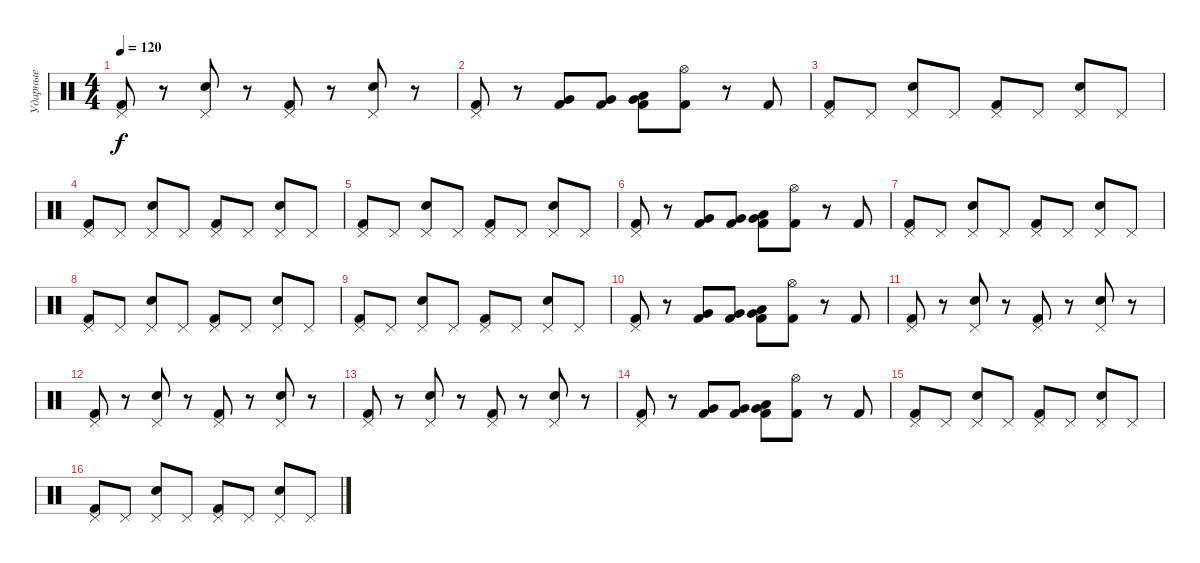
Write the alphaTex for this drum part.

\track ("Ударные" "Ударные") {instrument percussion}
\staff {score}
\articulation defaults
\ts (4 4)
\tempo 120
\clef neutral
\ks c
("Pedal Hi-Hat (hit)" "Kick (hit) 2").8{dy f} r.8 ("Pedal Hi-Hat (hit)" "Snare (hit) 2").8 r.8 ("Pedal Hi-Hat (hit)" "Kick (hit) 2").8 r.8 ("Pedal Hi-Hat (hit)" "Snare (hit) 2").8 r.8 |
("Pedal Hi-Hat (hit)" "Kick (hit) 2").8 r.8 ("Very Low Tom (hit)" "Kick (hit) 2").8 ("Very Low Tom (hit)" "Kick (hit) 2").8 ("Very Low Tom (hit)" "Low Tom (hit)" "Kick (hit) 2").8 ("Hi-Hat (open)" "Kick (hit) 2").8 r.8 "Kick (hit) 2".8 |
("Pedal Hi-Hat (hit)" "Kick (hit) 2").8 "Pedal Hi-Hat (hit)".8 ("Pedal Hi-Hat (hit)" "Snare (hit) 2").8 "Pedal Hi-Hat (hit)".8 ("Pedal Hi-Hat (hit)" "Kick (hit) 2").8 "Pedal Hi-Hat (hit)".8 ("Pedal Hi-Hat (hit)" "Snare (hit) 2").8 "Pedal Hi-Hat (hit)".8 |
("Pedal Hi-Hat (hit)" "Kick (hit) 2").8 "Pedal Hi-Hat (hit)".8 ("Pedal Hi-Hat (hit)" "Snare (hit) 2").8 "Pedal Hi-Hat (hit)".8 ("Pedal Hi-Hat (hit)" "Kick (hit) 2").8 "Pedal Hi-Hat (hit)".8 ("Pedal Hi-Hat (hit)" "Snare (hit) 2").8 "Pedal Hi-Hat (hit)".8 |
("Pedal Hi-Hat (hit)" "Kick (hit) 2").8 "Pedal Hi-Hat (hit)".8 ("Pedal Hi-Hat (hit)" "Snare (hit) 2").8 "Pedal Hi-Hat (hit)".8 ("Pedal Hi-Hat (hit)" "Kick (hit) 2").8 "Pedal Hi-Hat (hit)".8 ("Pedal Hi-Hat (hit)" "Snare (hit) 2").8 "Pedal Hi-Hat (hit)".8 |
("Pedal Hi-Hat (hit)" "Kick (hit) 2").8 r.8 ("Very Low Tom (hit)" "Kick (hit) 2").8 ("Very Low Tom (hit)" "Kick (hit) 2").8 ("Very Low Tom (hit)" "Low Tom (hit)" "Kick (hit) 2").8 ("Hi-Hat (open)" "Kick (hit) 2").8 r.8 "Kick (hit) 2".8 |
("Pedal Hi-Hat (hit)" "Kick (hit) 2").8 "Pedal Hi-Hat (hit)".8 ("Pedal Hi-Hat (hit)" "Snare (hit) 2").8 "Pedal Hi-Hat (hit)".8 ("Pedal Hi-Hat (hit)" "Kick (hit) 2").8 "Pedal Hi-Hat (hit)".8 ("Pedal Hi-Hat (hit)" "Snare (hit) 2").8 "Pedal Hi-Hat (hit)".8 |
("Pedal Hi-Hat (hit)" "Kick (hit) 2").8 "Pedal Hi-Hat (hit)".8 ("Pedal Hi-Hat (hit)" "Snare (hit) 2").8 "Pedal Hi-Hat (hit)".8 ("Pedal Hi-Hat (hit)" "Kick (hit) 2").8 "Pedal Hi-Hat (hit)".8 ("Pedal Hi-Hat (hit)" "Snare (hit) 2").8 "Pedal Hi-Hat (hit)".8 |
("Pedal Hi-Hat (hit)" "Kick (hit) 2").8 "Pedal Hi-Hat (hit)".8 ("Pedal Hi-Hat (hit)" "Snare (hit) 2").8 "Pedal Hi-Hat (hit)".8 ("Pedal Hi-Hat (hit)" "Kick (hit) 2").8 "Pedal Hi-Hat (hit)".8 ("Pedal Hi-Hat (hit)" "Snare (hit) 2").8 "Pedal Hi-Hat (hit)".8 |
("Pedal Hi-Hat (hit)" "Kick (hit) 2").8 r.8 ("Very Low Tom (hit)" "Kick (hit) 2").8 ("Very Low Tom (hit)" "Kick (hit) 2").8 ("Very Low Tom (hit)" "Low Tom (hit)" "Kick (hit) 2").8 ("Hi-Hat (open)" "Kick (hit) 2").8 r.8 "Kick (hit) 2".8 |
("Pedal Hi-Hat (hit)" "Kick (hit) 2").8 r.8 ("Pedal Hi-Hat (hit)" "Snare (hit) 2").8 r.8 ("Pedal Hi-Hat (hit)" "Kick (hit) 2").8 r.8 ("Pedal Hi-Hat (hit)" "Snare (hit) 2").8 r.8 |
("Pedal Hi-Hat (hit)" "Kick (hit) 2").8 r.8 ("Pedal Hi-Hat (hit)" "Snare (hit) 2").8 r.8 ("Pedal Hi-Hat (hit)" "Kick (hit) 2").8 r.8 ("Pedal Hi-Hat (hit)" "Snare (hit) 2").8 r.8 |
("Pedal Hi-Hat (hit)" "Kick (hit) 2").8 r.8 ("Pedal Hi-Hat (hit)" "Snare (hit) 2").8 r.8 ("Pedal Hi-Hat (hit)" "Kick (hit) 2").8 r.8 ("Pedal Hi-Hat (hit)" "Snare (hit) 2").8 r.8 |
("Pedal Hi-Hat (hit)" "Kick (hit) 2").8 r.8 ("Very Low Tom (hit)" "Kick (hit) 2").8 ("Very Low Tom (hit)" "Kick (hit) 2").8 ("Very Low Tom (hit)" "Low Tom (hit)" "Kick (hit) 2").8 ("Hi-Hat (open)" "Kick (hit) 2").8 r.8 "Kick (hit) 2".8 |
("Pedal Hi-Hat (hit)" "Kick (hit) 2").8 "Pedal Hi-Hat (hit)".8 ("Pedal Hi-Hat (hit)" "Snare (hit) 2").8 "Pedal Hi-Hat (hit)".8 ("Pedal Hi-Hat (hit)" "Kick (hit) 2").8 "Pedal Hi-Hat (hit)".8 ("Pedal Hi-Hat (hit)" "Snare (hit) 2").8 "Pedal Hi-Hat (hit)".8 |
("Pedal Hi-Hat (hit)" "Kick (hit) 2").8 "Pedal Hi-Hat (hit)".8 ("Pedal Hi-Hat (hit)" "Snare (hit) 2").8 "Pedal Hi-Hat (hit)".8 ("Pedal Hi-Hat (hit)" "Kick (hit) 2").8 "Pedal Hi-Hat (hit)".8 ("Pedal Hi-Hat (hit)" "Snare (hit) 2").8 "Pedal Hi-Hat (hit)".8
